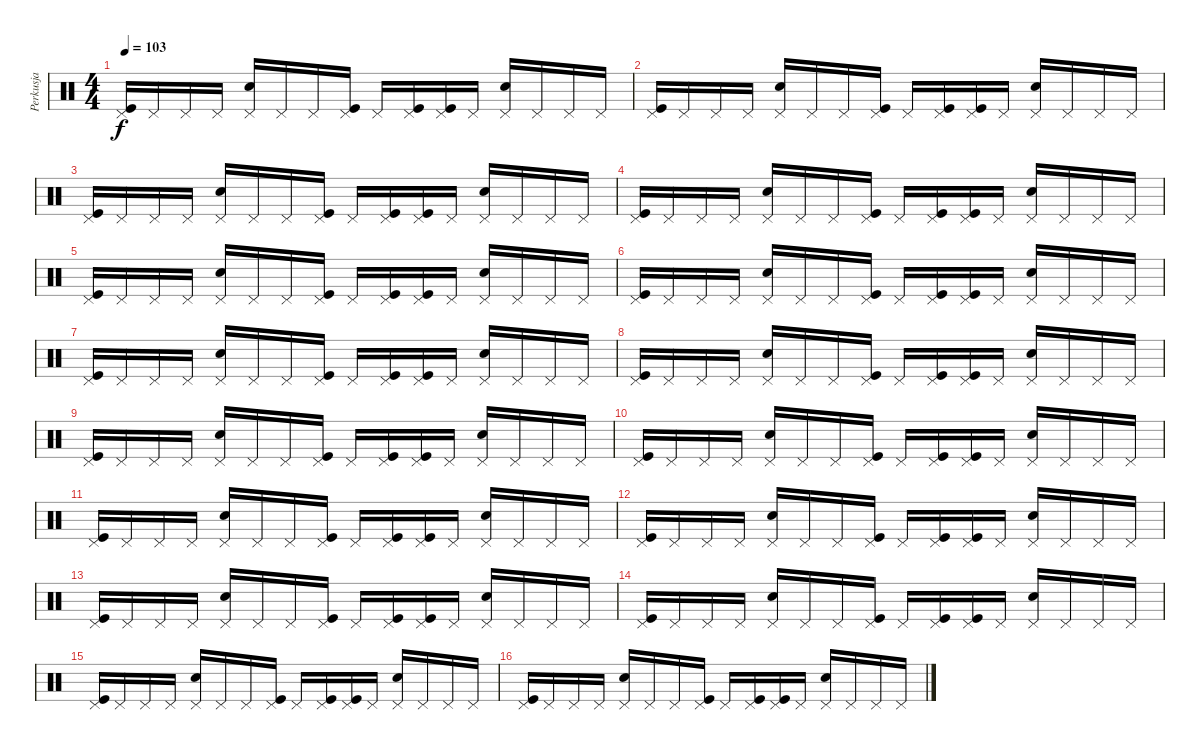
\track ("Perkusja" "Perkusja") {instrument percussion}
\staff {score}
\articulation defaults
\ts (4 4)
\tempo 103
\clef neutral
\ks c
("Pedal Hi-Hat (hit)" "Kick (hit)").16{dy f} "Pedal Hi-Hat (hit)".16 "Pedal Hi-Hat (hit)".16 "Pedal Hi-Hat (hit)".16 ("Pedal Hi-Hat (hit)" "Snare (hit) 2").16 "Pedal Hi-Hat (hit)".16 "Pedal Hi-Hat (hit)".16 ("Pedal Hi-Hat (hit)" "Kick (hit)").16 "Pedal Hi-Hat (hit)".16 ("Pedal Hi-Hat (hit)" "Kick (hit)").16 ("Pedal Hi-Hat (hit)" "Kick (hit)").16 "Pedal Hi-Hat (hit)".16 ("Pedal Hi-Hat (hit)" "Snare (hit) 2").16 "Pedal Hi-Hat (hit)".16 "Pedal Hi-Hat (hit)".16 "Pedal Hi-Hat (hit)".16 |
("Pedal Hi-Hat (hit)" "Kick (hit)").16 "Pedal Hi-Hat (hit)".16 "Pedal Hi-Hat (hit)".16 "Pedal Hi-Hat (hit)".16 ("Pedal Hi-Hat (hit)" "Snare (hit) 2").16 "Pedal Hi-Hat (hit)".16 "Pedal Hi-Hat (hit)".16 ("Pedal Hi-Hat (hit)" "Kick (hit)").16 "Pedal Hi-Hat (hit)".16 ("Pedal Hi-Hat (hit)" "Kick (hit)").16 ("Pedal Hi-Hat (hit)" "Kick (hit)").16 "Pedal Hi-Hat (hit)".16 ("Pedal Hi-Hat (hit)" "Snare (hit) 2").16 "Pedal Hi-Hat (hit)".16 "Pedal Hi-Hat (hit)".16 "Pedal Hi-Hat (hit)".16 |
("Pedal Hi-Hat (hit)" "Kick (hit)").16 "Pedal Hi-Hat (hit)".16 "Pedal Hi-Hat (hit)".16 "Pedal Hi-Hat (hit)".16 ("Pedal Hi-Hat (hit)" "Snare (hit) 2").16 "Pedal Hi-Hat (hit)".16 "Pedal Hi-Hat (hit)".16 ("Pedal Hi-Hat (hit)" "Kick (hit)").16 "Pedal Hi-Hat (hit)".16 ("Pedal Hi-Hat (hit)" "Kick (hit)").16 ("Pedal Hi-Hat (hit)" "Kick (hit)").16 "Pedal Hi-Hat (hit)".16 ("Pedal Hi-Hat (hit)" "Snare (hit) 2").16 "Pedal Hi-Hat (hit)".16 "Pedal Hi-Hat (hit)".16 "Pedal Hi-Hat (hit)".16 |
("Pedal Hi-Hat (hit)" "Kick (hit)").16 "Pedal Hi-Hat (hit)".16 "Pedal Hi-Hat (hit)".16 "Pedal Hi-Hat (hit)".16 ("Pedal Hi-Hat (hit)" "Snare (hit) 2").16 "Pedal Hi-Hat (hit)".16 "Pedal Hi-Hat (hit)".16 ("Pedal Hi-Hat (hit)" "Kick (hit)").16 "Pedal Hi-Hat (hit)".16 ("Pedal Hi-Hat (hit)" "Kick (hit)").16 ("Pedal Hi-Hat (hit)" "Kick (hit)").16 "Pedal Hi-Hat (hit)".16 ("Pedal Hi-Hat (hit)" "Snare (hit) 2").16 "Pedal Hi-Hat (hit)".16 "Pedal Hi-Hat (hit)".16 "Pedal Hi-Hat (hit)".16 |
("Pedal Hi-Hat (hit)" "Kick (hit)").16 "Pedal Hi-Hat (hit)".16 "Pedal Hi-Hat (hit)".16 "Pedal Hi-Hat (hit)".16 ("Pedal Hi-Hat (hit)" "Snare (hit) 2").16 "Pedal Hi-Hat (hit)".16 "Pedal Hi-Hat (hit)".16 ("Pedal Hi-Hat (hit)" "Kick (hit)").16 "Pedal Hi-Hat (hit)".16 ("Pedal Hi-Hat (hit)" "Kick (hit)").16 ("Pedal Hi-Hat (hit)" "Kick (hit)").16 "Pedal Hi-Hat (hit)".16 ("Pedal Hi-Hat (hit)" "Snare (hit) 2").16 "Pedal Hi-Hat (hit)".16 "Pedal Hi-Hat (hit)".16 "Pedal Hi-Hat (hit)".16 |
("Pedal Hi-Hat (hit)" "Kick (hit)").16 "Pedal Hi-Hat (hit)".16 "Pedal Hi-Hat (hit)".16 "Pedal Hi-Hat (hit)".16 ("Pedal Hi-Hat (hit)" "Snare (hit) 2").16 "Pedal Hi-Hat (hit)".16 "Pedal Hi-Hat (hit)".16 ("Pedal Hi-Hat (hit)" "Kick (hit)").16 "Pedal Hi-Hat (hit)".16 ("Pedal Hi-Hat (hit)" "Kick (hit)").16 ("Pedal Hi-Hat (hit)" "Kick (hit)").16 "Pedal Hi-Hat (hit)".16 ("Pedal Hi-Hat (hit)" "Snare (hit) 2").16 "Pedal Hi-Hat (hit)".16 "Pedal Hi-Hat (hit)".16 "Pedal Hi-Hat (hit)".16 |
("Pedal Hi-Hat (hit)" "Kick (hit)").16 "Pedal Hi-Hat (hit)".16 "Pedal Hi-Hat (hit)".16 "Pedal Hi-Hat (hit)".16 ("Pedal Hi-Hat (hit)" "Snare (hit) 2").16 "Pedal Hi-Hat (hit)".16 "Pedal Hi-Hat (hit)".16 ("Pedal Hi-Hat (hit)" "Kick (hit)").16 "Pedal Hi-Hat (hit)".16 ("Pedal Hi-Hat (hit)" "Kick (hit)").16 ("Pedal Hi-Hat (hit)" "Kick (hit)").16 "Pedal Hi-Hat (hit)".16 ("Pedal Hi-Hat (hit)" "Snare (hit) 2").16 "Pedal Hi-Hat (hit)".16 "Pedal Hi-Hat (hit)".16 "Pedal Hi-Hat (hit)".16 |
("Pedal Hi-Hat (hit)" "Kick (hit)").16 "Pedal Hi-Hat (hit)".16 "Pedal Hi-Hat (hit)".16 "Pedal Hi-Hat (hit)".16 ("Pedal Hi-Hat (hit)" "Snare (hit) 2").16 "Pedal Hi-Hat (hit)".16 "Pedal Hi-Hat (hit)".16 ("Pedal Hi-Hat (hit)" "Kick (hit)").16 "Pedal Hi-Hat (hit)".16 ("Pedal Hi-Hat (hit)" "Kick (hit)").16 ("Pedal Hi-Hat (hit)" "Kick (hit)").16 "Pedal Hi-Hat (hit)".16 ("Pedal Hi-Hat (hit)" "Snare (hit) 2").16 "Pedal Hi-Hat (hit)".16 "Pedal Hi-Hat (hit)".16 "Pedal Hi-Hat (hit)".16 |
("Pedal Hi-Hat (hit)" "Kick (hit)").16 "Pedal Hi-Hat (hit)".16 "Pedal Hi-Hat (hit)".16 "Pedal Hi-Hat (hit)".16 ("Pedal Hi-Hat (hit)" "Snare (hit) 2").16 "Pedal Hi-Hat (hit)".16 "Pedal Hi-Hat (hit)".16 ("Pedal Hi-Hat (hit)" "Kick (hit)").16 "Pedal Hi-Hat (hit)".16 ("Pedal Hi-Hat (hit)" "Kick (hit)").16 ("Pedal Hi-Hat (hit)" "Kick (hit)").16 "Pedal Hi-Hat (hit)".16 ("Pedal Hi-Hat (hit)" "Snare (hit) 2").16 "Pedal Hi-Hat (hit)".16 "Pedal Hi-Hat (hit)".16 "Pedal Hi-Hat (hit)".16 |
("Pedal Hi-Hat (hit)" "Kick (hit)").16 "Pedal Hi-Hat (hit)".16 "Pedal Hi-Hat (hit)".16 "Pedal Hi-Hat (hit)".16 ("Pedal Hi-Hat (hit)" "Snare (hit) 2").16 "Pedal Hi-Hat (hit)".16 "Pedal Hi-Hat (hit)".16 ("Pedal Hi-Hat (hit)" "Kick (hit)").16 "Pedal Hi-Hat (hit)".16 ("Pedal Hi-Hat (hit)" "Kick (hit)").16 ("Pedal Hi-Hat (hit)" "Kick (hit)").16 "Pedal Hi-Hat (hit)".16 ("Pedal Hi-Hat (hit)" "Snare (hit) 2").16 "Pedal Hi-Hat (hit)".16 "Pedal Hi-Hat (hit)".16 "Pedal Hi-Hat (hit)".16 |
("Pedal Hi-Hat (hit)" "Kick (hit)").16 "Pedal Hi-Hat (hit)".16 "Pedal Hi-Hat (hit)".16 "Pedal Hi-Hat (hit)".16 ("Pedal Hi-Hat (hit)" "Snare (hit) 2").16 "Pedal Hi-Hat (hit)".16 "Pedal Hi-Hat (hit)".16 ("Pedal Hi-Hat (hit)" "Kick (hit)").16 "Pedal Hi-Hat (hit)".16 ("Pedal Hi-Hat (hit)" "Kick (hit)").16 ("Pedal Hi-Hat (hit)" "Kick (hit)").16 "Pedal Hi-Hat (hit)".16 ("Pedal Hi-Hat (hit)" "Snare (hit) 2").16 "Pedal Hi-Hat (hit)".16 "Pedal Hi-Hat (hit)".16 "Pedal Hi-Hat (hit)".16 |
("Pedal Hi-Hat (hit)" "Kick (hit)").16 "Pedal Hi-Hat (hit)".16 "Pedal Hi-Hat (hit)".16 "Pedal Hi-Hat (hit)".16 ("Pedal Hi-Hat (hit)" "Snare (hit) 2").16 "Pedal Hi-Hat (hit)".16 "Pedal Hi-Hat (hit)".16 ("Pedal Hi-Hat (hit)" "Kick (hit)").16 "Pedal Hi-Hat (hit)".16 ("Pedal Hi-Hat (hit)" "Kick (hit)").16 ("Pedal Hi-Hat (hit)" "Kick (hit)").16 "Pedal Hi-Hat (hit)".16 ("Pedal Hi-Hat (hit)" "Snare (hit) 2").16 "Pedal Hi-Hat (hit)".16 "Pedal Hi-Hat (hit)".16 "Pedal Hi-Hat (hit)".16 |
("Pedal Hi-Hat (hit)" "Kick (hit)").16 "Pedal Hi-Hat (hit)".16 "Pedal Hi-Hat (hit)".16 "Pedal Hi-Hat (hit)".16 ("Pedal Hi-Hat (hit)" "Snare (hit) 2").16 "Pedal Hi-Hat (hit)".16 "Pedal Hi-Hat (hit)".16 ("Pedal Hi-Hat (hit)" "Kick (hit)").16 "Pedal Hi-Hat (hit)".16 ("Pedal Hi-Hat (hit)" "Kick (hit)").16 ("Pedal Hi-Hat (hit)" "Kick (hit)").16 "Pedal Hi-Hat (hit)".16 ("Pedal Hi-Hat (hit)" "Snare (hit) 2").16 "Pedal Hi-Hat (hit)".16 "Pedal Hi-Hat (hit)".16 "Pedal Hi-Hat (hit)".16 |
("Pedal Hi-Hat (hit)" "Kick (hit)").16 "Pedal Hi-Hat (hit)".16 "Pedal Hi-Hat (hit)".16 "Pedal Hi-Hat (hit)".16 ("Pedal Hi-Hat (hit)" "Snare (hit) 2").16 "Pedal Hi-Hat (hit)".16 "Pedal Hi-Hat (hit)".16 ("Pedal Hi-Hat (hit)" "Kick (hit)").16 "Pedal Hi-Hat (hit)".16 ("Pedal Hi-Hat (hit)" "Kick (hit)").16 ("Pedal Hi-Hat (hit)" "Kick (hit)").16 "Pedal Hi-Hat (hit)".16 ("Pedal Hi-Hat (hit)" "Snare (hit) 2").16 "Pedal Hi-Hat (hit)".16 "Pedal Hi-Hat (hit)".16 "Pedal Hi-Hat (hit)".16 |
("Pedal Hi-Hat (hit)" "Kick (hit)").16 "Pedal Hi-Hat (hit)".16 "Pedal Hi-Hat (hit)".16 "Pedal Hi-Hat (hit)".16 ("Pedal Hi-Hat (hit)" "Snare (hit) 2").16 "Pedal Hi-Hat (hit)".16 "Pedal Hi-Hat (hit)".16 ("Pedal Hi-Hat (hit)" "Kick (hit)").16 "Pedal Hi-Hat (hit)".16 ("Pedal Hi-Hat (hit)" "Kick (hit)").16 ("Pedal Hi-Hat (hit)" "Kick (hit)").16 "Pedal Hi-Hat (hit)".16 ("Pedal Hi-Hat (hit)" "Snare (hit) 2").16 "Pedal Hi-Hat (hit)".16 "Pedal Hi-Hat (hit)".16 "Pedal Hi-Hat (hit)".16 |
("Pedal Hi-Hat (hit)" "Kick (hit)").16 "Pedal Hi-Hat (hit)".16 "Pedal Hi-Hat (hit)".16 "Pedal Hi-Hat (hit)".16 ("Pedal Hi-Hat (hit)" "Snare (hit) 2").16 "Pedal Hi-Hat (hit)".16 "Pedal Hi-Hat (hit)".16 ("Pedal Hi-Hat (hit)" "Kick (hit)").16 "Pedal Hi-Hat (hit)".16 ("Pedal Hi-Hat (hit)" "Kick (hit)").16 ("Pedal Hi-Hat (hit)" "Kick (hit)").16 "Pedal Hi-Hat (hit)".16 ("Pedal Hi-Hat (hit)" "Snare (hit) 2").16 "Pedal Hi-Hat (hit)".16 "Pedal Hi-Hat (hit)".16 "Pedal Hi-Hat (hit)".16
